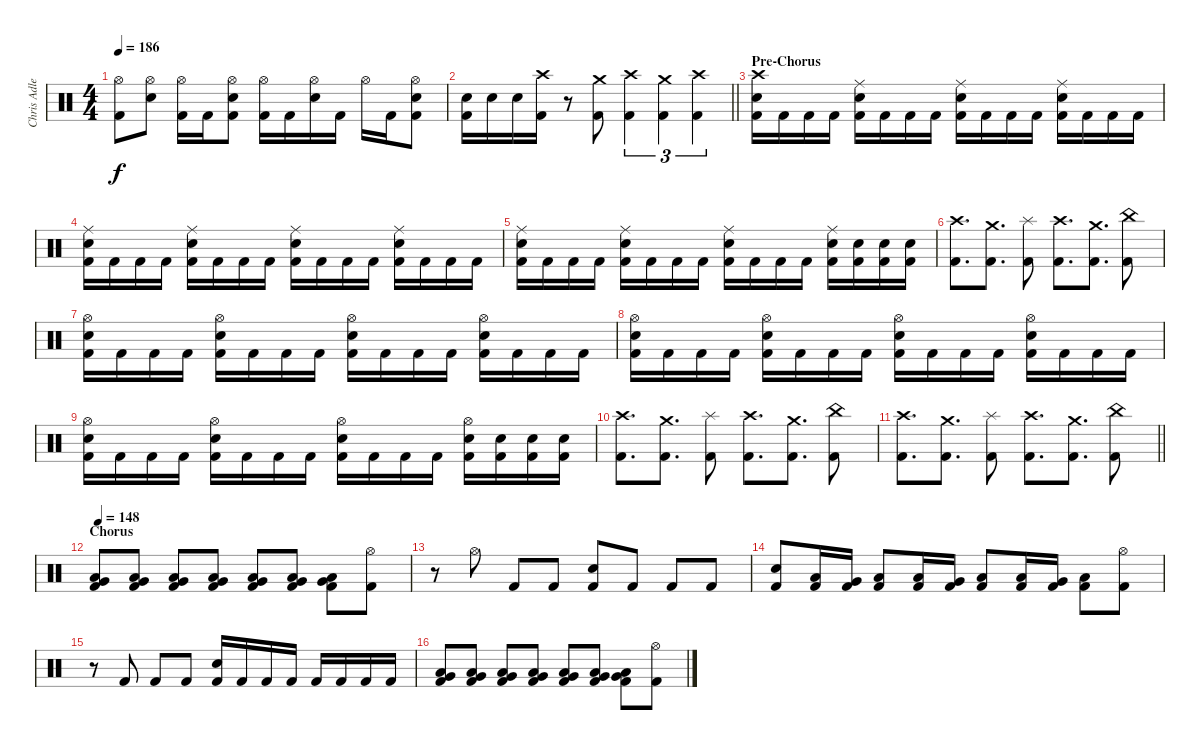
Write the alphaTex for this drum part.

\track ("Chris Adler (Drums)" "Chris Adle") {instrument percussion}
\staff {score}
\articulation defaults
\ts (4 4)
\tempo 186
\clef neutral
\ks c
("Hi-Hat (open)" "Kick (hit) 2").8{dy f} ("Hi-Hat (open)" "Snare (hit) 2").8 ("Hi-Hat (open)" "Kick (hit) 2").16 "Kick (hit) 2".16 ("Hi-Hat (open)" "Snare (hit) 2" "Kick (hit) 2").8 ("Hi-Hat (open)" "Kick (hit) 2").16 "Kick (hit) 2".16 ("Hi-Hat (open)" "Snare (hit) 2").16 "Kick (hit) 2".16 "Hi-Hat (open)".16 "Kick (hit) 2".16 ("Hi-Hat (open)" "Snare (hit) 2" "Kick (hit) 2").8 |
\barLineRight lightlight
("Snare (hit) 2" "Kick (hit) 2").16 "Snare (hit) 2".16 "Snare (hit) 2".16 ("Crash high (hit)" "Kick (hit) 2").16 r.8 ("Crash medium (hit)" "Kick (hit) 2").8 ("Crash high (hit)" "Kick (hit) 2").4{tu (3 2)} ("Crash medium (hit)" "Kick (hit) 2").4{tu (3 2)} ("Crash high (hit)" "Kick (hit) 2").4{tu (3 2)} |
\section ("" "Pre-Chorus")
("Crash high (hit)" "Snare (hit) 2" "Kick (hit) 2").16 "Kick (hit) 2".16 "Kick (hit) 2".16 "Kick (hit) 2".16 ("Ride (middle)" "Snare (hit) 2" "Kick (hit) 2").16 "Kick (hit) 2".16 "Kick (hit) 2".16 "Kick (hit) 2".16 ("Ride (middle)" "Snare (hit) 2" "Kick (hit) 2").16 "Kick (hit) 2".16 "Kick (hit) 2".16 "Kick (hit) 2".16 ("Ride (middle)" "Snare (hit) 2" "Kick (hit) 2").16 "Kick (hit) 2".16 "Kick (hit) 2".16 "Kick (hit) 2".16 |
("Ride (middle)" "Snare (hit) 2" "Kick (hit) 2").16 "Kick (hit) 2".16 "Kick (hit) 2".16 "Kick (hit) 2".16 ("Ride (middle)" "Snare (hit) 2" "Kick (hit) 2").16 "Kick (hit) 2".16 "Kick (hit) 2".16 "Kick (hit) 2".16 ("Ride (middle)" "Snare (hit) 2" "Kick (hit) 2").16 "Kick (hit) 2".16 "Kick (hit) 2".16 "Kick (hit) 2".16 ("Ride (middle)" "Snare (hit) 2" "Kick (hit) 2").16 "Kick (hit) 2".16 "Kick (hit) 2".16 "Kick (hit) 2".16 |
("Ride (middle)" "Snare (hit) 2" "Kick (hit) 2").16 "Kick (hit) 2".16 "Kick (hit) 2".16 "Kick (hit) 2".16 ("Ride (middle)" "Snare (hit) 2" "Kick (hit) 2").16 "Kick (hit) 2".16 "Kick (hit) 2".16 "Kick (hit) 2".16 ("Ride (middle)" "Snare (hit) 2" "Kick (hit) 2").16 "Kick (hit) 2".16 "Kick (hit) 2".16 "Kick (hit) 2".16 ("Ride (middle)" "Snare (hit) 2" "Kick (hit) 2").16 ("Snare (hit) 2" "Kick (hit) 2").16 ("Snare (hit) 2" "Kick (hit) 2").16 ("Snare (hit) 2" "Kick (hit) 2").16 |
("Crash high (hit)" "Kick (hit) 2").8{d} ("Crash medium (hit)" "Kick (hit) 2").8{d} ("Splash (hit)" "Kick (hit) 2").8 ("Crash high (hit)" "Kick (hit) 2").8{d} ("Crash medium (hit)" "Kick (hit) 2").8{d} ("China (hit)" "Kick (hit) 2").8 |
("Hi-Hat (open)" "Snare (hit) 2" "Kick (hit) 2").16 "Kick (hit) 2".16 "Kick (hit) 2".16 "Kick (hit) 2".16 ("Hi-Hat (open)" "Snare (hit) 2" "Kick (hit) 2").16 "Kick (hit) 2".16 "Kick (hit) 2".16 "Kick (hit) 2".16 ("Hi-Hat (open)" "Snare (hit) 2" "Kick (hit) 2").16 "Kick (hit) 2".16 "Kick (hit) 2".16 "Kick (hit) 2".16 ("Hi-Hat (open)" "Snare (hit) 2" "Kick (hit) 2").16 "Kick (hit) 2".16 "Kick (hit) 2".16 "Kick (hit) 2".16 |
("Hi-Hat (open)" "Snare (hit) 2" "Kick (hit) 2").16 "Kick (hit) 2".16 "Kick (hit) 2".16 "Kick (hit) 2".16 ("Hi-Hat (open)" "Snare (hit) 2" "Kick (hit) 2").16 "Kick (hit) 2".16 "Kick (hit) 2".16 "Kick (hit) 2".16 ("Hi-Hat (open)" "Snare (hit) 2" "Kick (hit) 2").16 "Kick (hit) 2".16 "Kick (hit) 2".16 "Kick (hit) 2".16 ("Hi-Hat (open)" "Snare (hit) 2" "Kick (hit) 2").16 "Kick (hit) 2".16 "Kick (hit) 2".16 "Kick (hit) 2".16 |
("Hi-Hat (open)" "Snare (hit) 2" "Kick (hit) 2").16 "Kick (hit) 2".16 "Kick (hit) 2".16 "Kick (hit) 2".16 ("Hi-Hat (open)" "Snare (hit) 2" "Kick (hit) 2").16 "Kick (hit) 2".16 "Kick (hit) 2".16 "Kick (hit) 2".16 ("Hi-Hat (open)" "Snare (hit) 2" "Kick (hit) 2").16 "Kick (hit) 2".16 "Kick (hit) 2".16 "Kick (hit) 2".16 ("Hi-Hat (open)" "Snare (hit) 2" "Kick (hit) 2").16 ("Snare (hit) 2" "Kick (hit) 2").16 ("Snare (hit) 2" "Kick (hit) 2").16 ("Snare (hit) 2" "Kick (hit) 2").16 |
("Crash high (hit)" "Kick (hit) 2").8{d} ("Crash medium (hit)" "Kick (hit) 2").8{d} ("Splash (hit)" "Kick (hit) 2").8 ("Crash high (hit)" "Kick (hit) 2").8{d} ("Crash medium (hit)" "Kick (hit) 2").8{d} ("China (hit)" "Kick (hit) 2").8 |
\barLineRight lightlight
("Crash high (hit)" "Kick (hit) 2").8{d} ("Crash medium (hit)" "Kick (hit) 2").8{d} ("Splash (hit)" "Kick (hit) 2").8 ("Crash high (hit)" "Kick (hit) 2").8{d} ("Crash medium (hit)" "Kick (hit) 2").8{d} ("China (hit)" "Kick (hit) 2").8 |
\section ("" "Chorus")
\tempo 148
("Very Low Tom (hit)" "Low Floor Tom (hit)" "Kick (hit) 2").8 ("Very Low Tom (hit)" "Low Floor Tom (hit)" "Kick (hit) 2").8 ("Very Low Tom (hit)" "Low Floor Tom (hit)" "Kick (hit) 2").8 ("Very Low Tom (hit)" "Low Floor Tom (hit)" "Kick (hit) 2").8 ("Very Low Tom (hit)" "Low Floor Tom (hit)" "Kick (hit) 2").8 ("Very Low Tom (hit)" "Low Floor Tom (hit)" "Kick (hit) 2").8 ("Very Low Tom (hit)" "Low Floor Tom (hit)" "Kick (hit) 2").8 ("Hi-Hat (open)" "Kick (hit) 2").8 |
r.8 "Hi-Hat (open)".8 "Kick (hit) 2".8 "Kick (hit) 2".8 ("Snare (hit) 2" "Kick (hit) 2").8 "Kick (hit) 2".8 "Kick (hit) 2".8 "Kick (hit) 2".8 |
("Snare (hit) 2" "Kick (hit) 2").8 ("Low Tom (hit)" "Kick (hit) 2").16 ("Very Low Tom (hit)" "Kick (hit) 2").16 ("Low Floor Tom (hit)" "Kick (hit) 2").8 ("Low Tom (hit)" "Kick (hit) 2").16 ("Very Low Tom (hit)" "Kick (hit) 2").16 ("Low Floor Tom (hit)" "Kick (hit) 2").8 ("Low Tom (hit)" "Kick (hit) 2").16 ("Very Low Tom (hit)" "Kick (hit) 2").16 ("Low Floor Tom (hit)" "Kick (hit) 2").8 ("Hi-Hat (open)" "Kick (hit) 2").8 |
r.8 "Kick (hit) 2".8 "Kick (hit) 2".8 "Kick (hit) 2".8 ("Snare (hit) 2" "Kick (hit) 2").16 "Kick (hit) 2".16 "Kick (hit) 2".16 "Kick (hit) 2".16 "Kick (hit) 2".16 "Kick (hit) 2".16 "Kick (hit) 2".16 "Kick (hit) 2".16 |
("Very Low Tom (hit)" "Low Floor Tom (hit)" "Kick (hit) 2").8 ("Very Low Tom (hit)" "Low Floor Tom (hit)" "Kick (hit) 2").8 ("Very Low Tom (hit)" "Low Floor Tom (hit)" "Kick (hit) 2").8 ("Very Low Tom (hit)" "Low Floor Tom (hit)" "Kick (hit) 2").8 ("Very Low Tom (hit)" "Low Floor Tom (hit)" "Kick (hit) 2").8 ("Very Low Tom (hit)" "Low Floor Tom (hit)" "Kick (hit) 2").8 ("Very Low Tom (hit)" "Low Floor Tom (hit)" "Kick (hit) 2").8 ("Hi-Hat (open)" "Kick (hit) 2").8
